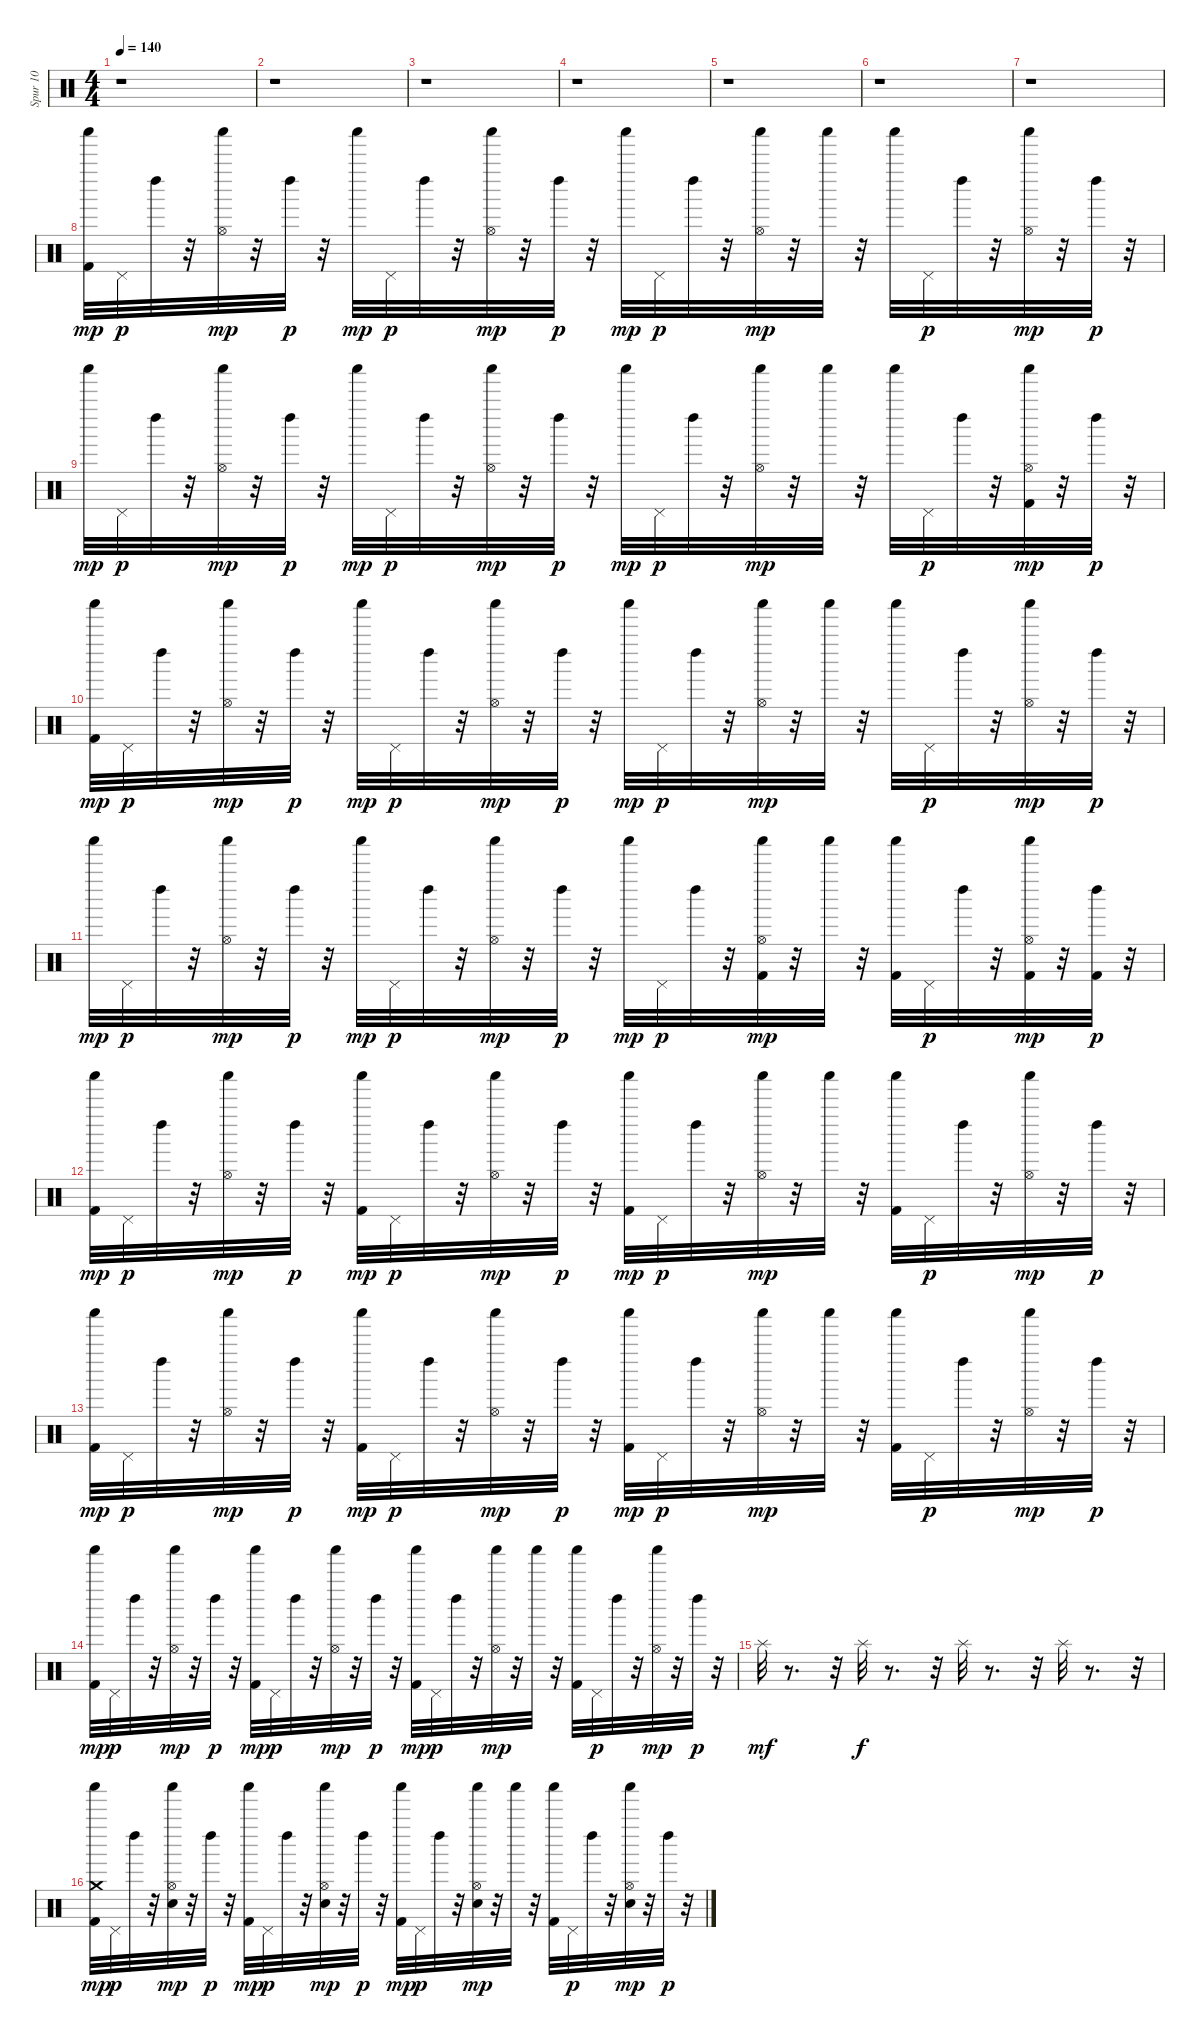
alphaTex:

\track ("Spur 10" "Spur 10") {instrument percussion}
\staff {score}
\articulation defaults
\ts (4 4)
\tempo 140
\clef neutral
\ks c
r.1{dy mp} |
r.1 |
r.1 |
r.1 |
r.1 |
r.1 |
r.1 |
("Kick (hit) 2" "Shaker (hit)").32 "Pedal Hi-Hat (hit)".32{dy p} "Left Maraca (hit)".32 r.32 ("Hi-Hat (open)" "Shaker (hit)").32{dy mp} r.32 "Left Maraca (hit)".32{dy p} r.32 "Shaker (hit)".32{dy mp} "Pedal Hi-Hat (hit)".32{dy p} "Left Maraca (hit)".32 r.32 ("Hi-Hat (open)" "Shaker (hit)").32{dy mp} r.32 "Left Maraca (hit)".32{dy p} r.32 "Shaker (hit)".32{dy mp} "Pedal Hi-Hat (hit)".32{dy p} "Left Maraca (hit)".32 r.32 ("Hi-Hat (open)" "Shaker (hit)").32{dy mp} r.32 "Shaker (hit)".32 r.32 "Shaker (hit)".32 "Pedal Hi-Hat (hit)".32{dy p} "Left Maraca (hit)".32 r.32 ("Hi-Hat (open)" "Shaker (hit)").32{dy mp} r.32 "Left Maraca (hit)".32{dy p} r.32 |
"Shaker (hit)".32{dy mp} "Pedal Hi-Hat (hit)".32{dy p} "Left Maraca (hit)".32 r.32 ("Hi-Hat (open)" "Shaker (hit)").32{dy mp} r.32 "Left Maraca (hit)".32{dy p} r.32 "Shaker (hit)".32{dy mp} "Pedal Hi-Hat (hit)".32{dy p} "Left Maraca (hit)".32 r.32 ("Hi-Hat (open)" "Shaker (hit)").32{dy mp} r.32 "Left Maraca (hit)".32{dy p} r.32 "Shaker (hit)".32{dy mp} "Pedal Hi-Hat (hit)".32{dy p} "Left Maraca (hit)".32 r.32 ("Hi-Hat (open)" "Shaker (hit)").32{dy mp} r.32 "Shaker (hit)".32 r.32 "Shaker (hit)".32 "Pedal Hi-Hat (hit)".32{dy p} "Left Maraca (hit)".32 r.32 ("Kick (hit) 2" "Hi-Hat (open)" "Shaker (hit)").32{dy mp} r.32 "Left Maraca (hit)".32{dy p} r.32 |
("Kick (hit) 2" "Shaker (hit)").32{dy mp} "Pedal Hi-Hat (hit)".32{dy p} "Left Maraca (hit)".32 r.32 ("Hi-Hat (open)" "Shaker (hit)").32{dy mp} r.32 "Left Maraca (hit)".32{dy p} r.32 "Shaker (hit)".32{dy mp} "Pedal Hi-Hat (hit)".32{dy p} "Left Maraca (hit)".32 r.32 ("Hi-Hat (open)" "Shaker (hit)").32{dy mp} r.32 "Left Maraca (hit)".32{dy p} r.32 "Shaker (hit)".32{dy mp} "Pedal Hi-Hat (hit)".32{dy p} "Left Maraca (hit)".32 r.32 ("Hi-Hat (open)" "Shaker (hit)").32{dy mp} r.32 "Shaker (hit)".32 r.32 "Shaker (hit)".32 "Pedal Hi-Hat (hit)".32{dy p} "Left Maraca (hit)".32 r.32 ("Hi-Hat (open)" "Shaker (hit)").32{dy mp} r.32 "Left Maraca (hit)".32{dy p} r.32 |
"Shaker (hit)".32{dy mp} "Pedal Hi-Hat (hit)".32{dy p} "Left Maraca (hit)".32 r.32 ("Hi-Hat (open)" "Shaker (hit)").32{dy mp} r.32 "Left Maraca (hit)".32{dy p} r.32 "Shaker (hit)".32{dy mp} "Pedal Hi-Hat (hit)".32{dy p} "Left Maraca (hit)".32 r.32 ("Hi-Hat (open)" "Shaker (hit)").32{dy mp} r.32 "Left Maraca (hit)".32{dy p} r.32 "Shaker (hit)".32{dy mp} "Pedal Hi-Hat (hit)".32{dy p} "Left Maraca (hit)".32 r.32 ("Kick (hit) 2" "Hi-Hat (open)" "Shaker (hit)").32{dy mp} r.32 "Shaker (hit)".32 r.32 ("Kick (hit) 2" "Shaker (hit)").32 "Pedal Hi-Hat (hit)".32{dy p} "Left Maraca (hit)".32 r.32 ("Kick (hit) 2" "Hi-Hat (open)" "Shaker (hit)").32{dy mp} r.32 ("Kick (hit) 2" "Left Maraca (hit)").32{dy p} r.32 |
("Kick (hit) 2" "Shaker (hit)").32{dy mp} "Pedal Hi-Hat (hit)".32{dy p} "Left Maraca (hit)".32 r.32 ("Hi-Hat (open)" "Shaker (hit)").32{dy mp} r.32 "Left Maraca (hit)".32{dy p} r.32 ("Kick (hit) 2" "Shaker (hit)").32{dy mp} "Pedal Hi-Hat (hit)".32{dy p} "Left Maraca (hit)".32 r.32 ("Hi-Hat (open)" "Shaker (hit)").32{dy mp} r.32 "Left Maraca (hit)".32{dy p} r.32 ("Kick (hit) 2" "Shaker (hit)").32{dy mp} "Pedal Hi-Hat (hit)".32{dy p} "Left Maraca (hit)".32 r.32 ("Hi-Hat (open)" "Shaker (hit)").32{dy mp} r.32 "Shaker (hit)".32 r.32 ("Kick (hit) 2" "Shaker (hit)").32 "Pedal Hi-Hat (hit)".32{dy p} "Left Maraca (hit)".32 r.32 ("Hi-Hat (open)" "Shaker (hit)").32{dy mp} r.32 "Left Maraca (hit)".32{dy p} r.32 |
("Kick (hit) 2" "Shaker (hit)").32{dy mp} "Pedal Hi-Hat (hit)".32{dy p} "Left Maraca (hit)".32 r.32 ("Hi-Hat (open)" "Shaker (hit)").32{dy mp} r.32 "Left Maraca (hit)".32{dy p} r.32 ("Kick (hit) 2" "Shaker (hit)").32{dy mp} "Pedal Hi-Hat (hit)".32{dy p} "Left Maraca (hit)".32 r.32 ("Hi-Hat (open)" "Shaker (hit)").32{dy mp} r.32 "Left Maraca (hit)".32{dy p} r.32 ("Kick (hit) 2" "Shaker (hit)").32{dy mp} "Pedal Hi-Hat (hit)".32{dy p} "Left Maraca (hit)".32 r.32 ("Hi-Hat (open)" "Shaker (hit)").32{dy mp} r.32 "Shaker (hit)".32 r.32 ("Kick (hit) 2" "Shaker (hit)").32 "Pedal Hi-Hat (hit)".32{dy p} "Left Maraca (hit)".32 r.32 ("Hi-Hat (open)" "Shaker (hit)").32{dy mp} r.32 "Left Maraca (hit)".32{dy p} r.32 |
("Kick (hit) 2" "Shaker (hit)").32{dy mp} "Pedal Hi-Hat (hit)".32{dy p} "Left Maraca (hit)".32 r.32 ("Hi-Hat (open)" "Shaker (hit)").32{dy mp} r.32 "Left Maraca (hit)".32{dy p} r.32 ("Kick (hit) 2" "Shaker (hit)").32{dy mp} "Pedal Hi-Hat (hit)".32{dy p} "Left Maraca (hit)".32 r.32 ("Hi-Hat (open)" "Shaker (hit)").32{dy mp} r.32 "Left Maraca (hit)".32{dy p} r.32 ("Kick (hit) 2" "Shaker (hit)").32{dy mp} "Pedal Hi-Hat (hit)".32{dy p} "Left Maraca (hit)".32 r.32 ("Hi-Hat (open)" "Shaker (hit)").32{dy mp} r.32 "Shaker (hit)".32 r.32 ("Kick (hit) 2" "Shaker (hit)").32 "Pedal Hi-Hat (hit)".32{dy p} "Left Maraca (hit)".32 r.32 ("Hi-Hat (open)" "Shaker (hit)").32{dy mp} r.32 "Left Maraca (hit)".32{dy p} r.32 |
"Splash (hit)".32{dy mf} r.8{d} r.32 "Splash (hit)".32{dy f} r.8{d} r.32 "Splash (hit)".32 r.8{d} r.32 "Splash (hit)".32 r.8{d} r.32 |
("Kick (hit) 2" "Crash medium (hit)" "Shaker (hit)").32{dy mp} "Pedal Hi-Hat (hit)".32{dy p} "Left Maraca (hit)".32 r.32 ("Hand Clap (hit)" "Hi-Hat (open)" "Shaker (hit)").32{dy mp} r.32 "Left Maraca (hit)".32{dy p} r.32 ("Kick (hit) 2" "Shaker (hit)").32{dy mp} "Pedal Hi-Hat (hit)".32{dy p} "Left Maraca (hit)".32 r.32 ("Hand Clap (hit)" "Hi-Hat (open)" "Shaker (hit)").32{dy mp} r.32 "Left Maraca (hit)".32{dy p} r.32 ("Kick (hit) 2" "Shaker (hit)").32{dy mp} "Pedal Hi-Hat (hit)".32{dy p} "Left Maraca (hit)".32 r.32 ("Hand Clap (hit)" "Hi-Hat (open)" "Shaker (hit)").32{dy mp} r.32 "Shaker (hit)".32 r.32 ("Kick (hit) 2" "Shaker (hit)").32 "Pedal Hi-Hat (hit)".32{dy p} "Left Maraca (hit)".32 r.32 ("Hand Clap (hit)" "Hi-Hat (open)" "Shaker (hit)").32{dy mp} r.32 "Left Maraca (hit)".32{dy p} r.32
